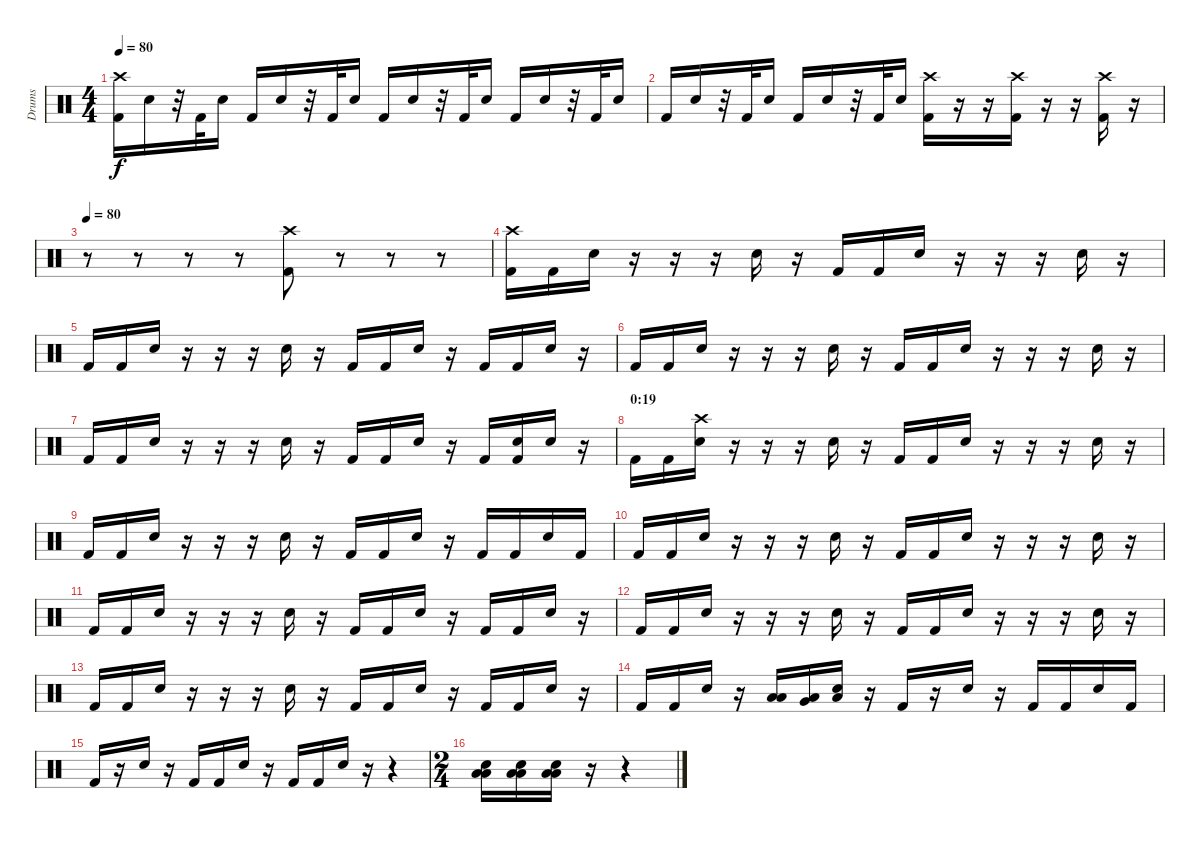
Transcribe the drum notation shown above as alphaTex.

\track ("Drums" "Drums") {instrument percussion}
\staff {score}
\articulation defaults
\ts (4 4)
\tempo 80
\tempo 100
\tempo 80
\clef neutral
\ks c
("Crash high (hit)" "Kick (hit) 2").16{dy f} "Electric Snare (hit)".16 r.32 "Kick (hit) 2".32 "Electric Snare (hit)".16 "Kick (hit) 2".16 "Electric Snare (hit)".16 r.32 "Kick (hit) 2".32 "Electric Snare (hit)".16 "Kick (hit) 2".16 "Electric Snare (hit)".16 r.32 "Kick (hit) 2".32 "Electric Snare (hit)".16 "Kick (hit) 2".16 "Electric Snare (hit)".16 r.32 "Kick (hit) 2".32 "Electric Snare (hit)".16 |
"Kick (hit) 2".16 "Electric Snare (hit)".16 r.32 "Kick (hit) 2".32 "Electric Snare (hit)".16 "Kick (hit) 2".16 "Electric Snare (hit)".16 r.32 "Kick (hit) 2".32 "Electric Snare (hit)".16 ("Crash high (hit)" "Kick (hit) 2").16 r.16 r.16 ("Crash high (hit)" "Kick (hit) 2").16 r.16 r.16 ("Crash high (hit)" "Kick (hit) 2").16 r.16 |
\tempo 80
r.8 r.8 r.8 r.8 ("Crash high (hit)" "Kick (hit) 2").8 r.8 r.8 r.8 |
("Crash high (hit)" "Kick (hit) 2").16 "Kick (hit) 2".16 "Snare (hit) 2".16 r.16 r.16 r.16 "Snare (hit) 2".16 r.16 "Kick (hit) 2".16 "Kick (hit) 2".16 "Snare (hit) 2".16 r.16 r.16 r.16 "Snare (hit) 2".16 r.16 |
"Kick (hit) 2".16 "Kick (hit) 2".16 "Snare (hit) 2".16 r.16 r.16 r.16 "Snare (hit) 2".16 r.16 "Kick (hit) 2".16 "Kick (hit) 2".16 "Snare (hit) 2".16 r.16 "Kick (hit) 2".16 "Kick (hit) 2".16 "Snare (hit) 2".16 r.16 |
"Kick (hit) 2".16 "Kick (hit) 2".16 "Snare (hit) 2".16 r.16 r.16 r.16 "Snare (hit) 2".16 r.16 "Kick (hit) 2".16 "Kick (hit) 2".16 "Snare (hit) 2".16 r.16 r.16 r.16 "Snare (hit) 2".16 r.16 |
"Kick (hit) 2".16 "Kick (hit) 2".16 "Snare (hit) 2".16 r.16 r.16 r.16 "Snare (hit) 2".16 r.16 "Kick (hit) 2".16 "Kick (hit) 2".16 "Snare (hit) 2".16 r.16 "Kick (hit) 2".16 ("Snare (hit) 2" "Kick (hit) 2").16 "Snare (hit) 2".16 r.16 |
\section ("" "0:19")
"Kick (hit) 2".16 "Kick (hit) 2".16 ("Crash high (hit)" "Snare (hit) 2").16 r.16 r.16 r.16 "Snare (hit) 2".16 r.16 "Kick (hit) 2".16 "Kick (hit) 2".16 "Snare (hit) 2".16 r.16 r.16 r.16 "Snare (hit) 2".16 r.16 |
"Kick (hit) 2".16 "Kick (hit) 2".16 "Snare (hit) 2".16 r.16 r.16 r.16 "Snare (hit) 2".16 r.16 "Kick (hit) 2".16 "Kick (hit) 2".16 "Snare (hit) 2".16 r.16 "Kick (hit) 2".16 "Kick (hit) 2".16 "Snare (hit) 2".16 "Kick (hit) 2".16 |
"Kick (hit) 2".16 "Kick (hit) 2".16 "Snare (hit) 2".16 r.16 r.16 r.16 "Snare (hit) 2".16 r.16 "Kick (hit) 2".16 "Kick (hit) 2".16 "Snare (hit) 2".16 r.16 r.16 r.16 "Snare (hit) 2".16 r.16 |
"Kick (hit) 2".16 "Kick (hit) 2".16 "Snare (hit) 2".16 r.16 r.16 r.16 "Snare (hit) 2".16 r.16 "Kick (hit) 2".16 "Kick (hit) 2".16 "Snare (hit) 2".16 r.16 "Kick (hit) 2".16 "Kick (hit) 2".16 "Snare (hit) 2".16 r.16 |
"Kick (hit) 2".16 "Kick (hit) 2".16 "Snare (hit) 2".16 r.16 r.16 r.16 "Snare (hit) 2".16 r.16 "Kick (hit) 2".16 "Kick (hit) 2".16 "Snare (hit) 2".16 r.16 r.16 r.16 "Snare (hit) 2".16 r.16 |
"Kick (hit) 2".16 "Kick (hit) 2".16 "Snare (hit) 2".16 r.16 r.16 r.16 "Snare (hit) 2".16 r.16 "Kick (hit) 2".16 "Kick (hit) 2".16 "Snare (hit) 2".16 r.16 "Kick (hit) 2".16 "Kick (hit) 2".16 "Snare (hit) 2".16 r.16 |
"Kick (hit) 2".16 "Kick (hit) 2".16 "Snare (hit) 2".16 r.16 ("Low Floor Tom (hit)" "Low Floor Tom (hit)").16 ("Low Floor Tom (hit)" "Very Low Tom (hit)").16 ("Snare (hit) 2" "Low Tom (hit)").16 r.16 "Kick (hit) 2".16 r.16 "Snare (hit) 2".16 r.16 "Kick (hit) 2".16 "Kick (hit) 2".16 "Snare (hit) 2".16 "Kick (hit) 2".16 |
"Kick (hit) 2".16 r.16 "Snare (hit) 2".16 r.16 "Kick (hit) 2".16 "Kick (hit) 2".16 "Snare (hit) 2".16 r.16 "Kick (hit) 2".16 "Kick (hit) 2".16 "Snare (hit) 2".16 r.16 r.4 |
\ts (2 4)
("Snare (hit) 2" "Low Floor Tom (hit)" "Low Floor Tom (hit)").16 ("Snare (hit) 2" "Low Floor Tom (hit)" "Low Floor Tom (hit)").16 ("Snare (hit) 2" "Low Floor Tom (hit)" "Low Floor Tom (hit)").16 r.16 r.4
